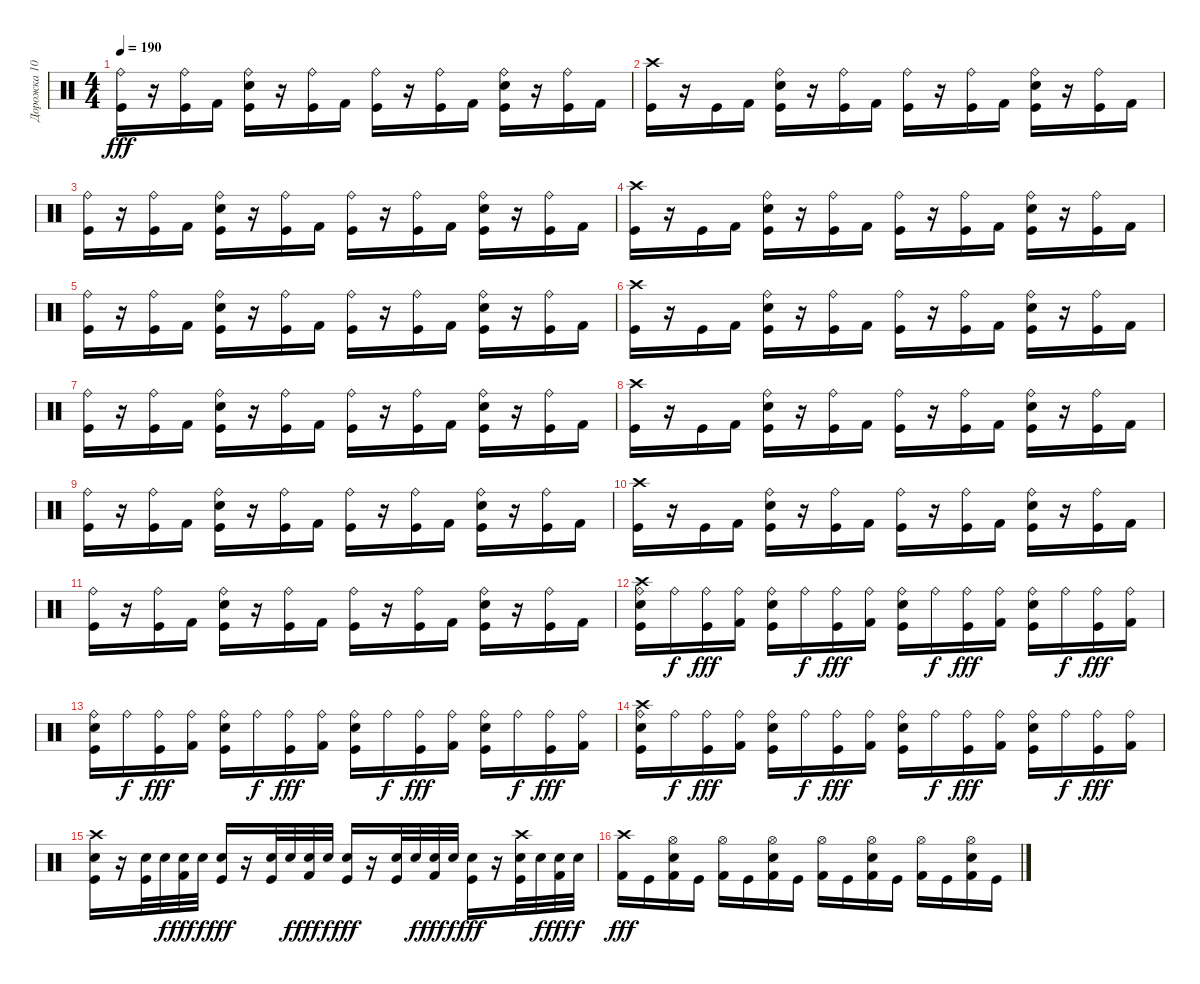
\track ("Дорожка 10" "Дорожка 10") {instrument percussion}
\staff {score}
\articulation defaults
\ts (4 4)
\tempo 190
\clef neutral
\ks c
("Kick (hit)" "Ride (bell)").16{dy fff} r.16 ("Kick (hit)" "Ride (bell)").16 "Kick (hit) 2".16 ("Ride (bell)" "Electric Snare (hit)" "Kick (hit)").16 r.16 ("Ride (bell)" "Kick (hit)").16 "Kick (hit) 2".16 ("Kick (hit)" "Ride (bell)").16 r.16 ("Kick (hit)" "Ride (bell)").16 "Kick (hit) 2".16 ("Kick (hit)" "Electric Snare (hit)" "Ride (bell)").16 r.16 ("Kick (hit)" "Ride (bell)").16 "Kick (hit) 2".16 |
("Kick (hit)" "Crash high (hit)").16 r.16 "Kick (hit)".16 "Kick (hit) 2".16 ("Electric Snare (hit)" "Ride (bell)" "Kick (hit)").16 r.16 ("Kick (hit)" "Ride (bell)").16 "Kick (hit) 2".16 ("Ride (bell)" "Kick (hit)").16 r.16 ("Ride (bell)" "Kick (hit)").16 "Kick (hit) 2".16 ("Electric Snare (hit)" "Kick (hit)" "Ride (bell)").16 r.16 ("Kick (hit)" "Ride (bell)").16 "Kick (hit) 2".16 |
("Ride (bell)" "Kick (hit)").16 r.16 ("Kick (hit)" "Ride (bell)").16 "Kick (hit) 2".16 ("Electric Snare (hit)" "Kick (hit)" "Ride (bell)").16 r.16 ("Kick (hit)" "Ride (bell)").16 "Kick (hit) 2".16 ("Kick (hit)" "Ride (bell)").16 r.16 ("Kick (hit)" "Ride (bell)").16 "Kick (hit) 2".16 ("Electric Snare (hit)" "Ride (bell)" "Kick (hit)").16 r.16 ("Kick (hit)" "Ride (bell)").16 "Kick (hit) 2".16 |
("Kick (hit)" "Crash high (hit)").16 r.16 "Kick (hit)".16 "Kick (hit) 2".16 ("Electric Snare (hit)" "Kick (hit)" "Ride (bell)").16 r.16 ("Ride (bell)" "Kick (hit)").16 "Kick (hit) 2".16 ("Kick (hit)" "Ride (bell)").16 r.16 ("Ride (bell)" "Kick (hit)").16 "Kick (hit) 2".16 ("Ride (bell)" "Electric Snare (hit)" "Kick (hit)").16 r.16 ("Kick (hit)" "Ride (bell)").16 "Kick (hit) 2".16 |
("Kick (hit)" "Ride (bell)").16 r.16 ("Ride (bell)" "Kick (hit)").16 "Kick (hit) 2".16 ("Ride (bell)" "Kick (hit)" "Electric Snare (hit)").16 r.16 ("Kick (hit)" "Ride (bell)").16 "Kick (hit) 2".16 ("Ride (bell)" "Kick (hit)").16 r.16 ("Kick (hit)" "Ride (bell)").16 "Kick (hit) 2".16 ("Electric Snare (hit)" "Ride (bell)" "Kick (hit)").16 r.16 ("Kick (hit)" "Ride (bell)").16 "Kick (hit) 2".16 |
("Crash high (hit)" "Kick (hit)").16 r.16 "Kick (hit)".16 "Kick (hit) 2".16 ("Electric Snare (hit)" "Kick (hit)" "Ride (bell)").16 r.16 ("Kick (hit)" "Ride (bell)").16 "Kick (hit) 2".16 ("Kick (hit)" "Ride (bell)").16 r.16 ("Ride (bell)" "Kick (hit)").16 "Kick (hit) 2".16 ("Ride (bell)" "Kick (hit)" "Electric Snare (hit)").16 r.16 ("Kick (hit)" "Ride (bell)").16 "Kick (hit) 2".16 |
("Ride (bell)" "Kick (hit)").16 r.16 ("Ride (bell)" "Kick (hit)").16 "Kick (hit) 2".16 ("Electric Snare (hit)" "Kick (hit)" "Ride (bell)").16 r.16 ("Kick (hit)" "Ride (bell)").16 "Kick (hit) 2".16 ("Ride (bell)" "Kick (hit)").16 r.16 ("Kick (hit)" "Ride (bell)").16 "Kick (hit) 2".16 ("Electric Snare (hit)" "Kick (hit)" "Ride (bell)").16 r.16 ("Kick (hit)" "Ride (bell)").16 "Kick (hit) 2".16 |
("Kick (hit)" "Crash high (hit)").16 r.16 "Kick (hit)".16 "Kick (hit) 2".16 ("Electric Snare (hit)" "Ride (bell)" "Kick (hit)").16 r.16 ("Kick (hit)" "Ride (bell)").16 "Kick (hit) 2".16 ("Kick (hit)" "Ride (bell)").16 r.16 ("Ride (bell)" "Kick (hit)").16 "Kick (hit) 2".16 ("Ride (bell)" "Electric Snare (hit)" "Kick (hit)").16 r.16 ("Ride (bell)" "Kick (hit)").16 "Kick (hit) 2".16 |
("Kick (hit)" "Ride (bell)").16 r.16 ("Ride (bell)" "Kick (hit)").16 "Kick (hit) 2".16 ("Electric Snare (hit)" "Ride (bell)" "Kick (hit)").16 r.16 ("Kick (hit)" "Ride (bell)").16 "Kick (hit) 2".16 ("Ride (bell)" "Kick (hit)").16 r.16 ("Kick (hit)" "Ride (bell)").16 "Kick (hit) 2".16 ("Ride (bell)" "Kick (hit)" "Electric Snare (hit)").16 r.16 ("Kick (hit)" "Ride (bell)").16 "Kick (hit) 2".16 |
("Kick (hit)" "Crash high (hit)").16 r.16 "Kick (hit)".16 "Kick (hit) 2".16 ("Ride (bell)" "Electric Snare (hit)" "Kick (hit)").16 r.16 ("Ride (bell)" "Kick (hit)").16 "Kick (hit) 2".16 ("Ride (bell)" "Kick (hit)").16 r.16 ("Kick (hit)" "Ride (bell)").16 "Kick (hit) 2".16 ("Ride (bell)" "Kick (hit)" "Electric Snare (hit)").16 r.16 ("Kick (hit)" "Ride (bell)").16 "Kick (hit) 2".16 |
("Ride (bell)" "Kick (hit)").16 r.16 ("Kick (hit)" "Ride (bell)").16 "Kick (hit) 2".16 ("Kick (hit)" "Ride (bell)" "Electric Snare (hit)").16 r.16 ("Ride (bell)" "Kick (hit)").16 "Kick (hit) 2".16 ("Ride (bell)" "Kick (hit)").16 r.16 ("Ride (bell)" "Kick (hit)").16 "Kick (hit) 2".16 ("Ride (bell)" "Kick (hit)" "Electric Snare (hit)").16 r.16 ("Kick (hit)" "Ride (bell)").16 "Kick (hit) 2".16 |
("Electric Snare (hit)" "Crash high (hit)" "Ride (bell)" "Kick (hit)").16 "Ride (bell)".16{dy f} ("Kick (hit)" "Ride (bell)").16{dy fff} ("Ride (bell)" "Kick (hit) 2").16 ("Ride (bell)" "Electric Snare (hit)" "Kick (hit)").16 "Ride (bell)".16{dy f} ("Kick (hit)" "Ride (bell)").16{dy fff} ("Kick (hit) 2" "Ride (bell)").16 ("Kick (hit)" "Ride (bell)" "Electric Snare (hit)").16 "Ride (bell)".16{dy f} ("Ride (bell)" "Kick (hit)").16{dy fff} ("Kick (hit) 2" "Ride (bell)").16 ("Kick (hit)" "Ride (bell)" "Electric Snare (hit)").16 "Ride (bell)".16{dy f} ("Ride (bell)" "Kick (hit)").16{dy fff} ("Ride (bell)" "Kick (hit) 2").16 |
("Ride (bell)" "Kick (hit)" "Electric Snare (hit)").16 "Ride (bell)".16{dy f} ("Kick (hit)" "Ride (bell)").16{dy fff} ("Kick (hit) 2" "Ride (bell)").16 ("Electric Snare (hit)" "Ride (bell)" "Kick (hit)").16 "Ride (bell)".16{dy f} ("Kick (hit)" "Ride (bell)").16{dy fff} ("Kick (hit) 2" "Ride (bell)").16 ("Ride (bell)" "Electric Snare (hit)" "Kick (hit)").16 "Ride (bell)".16{dy f} ("Kick (hit)" "Ride (bell)").16{dy fff} ("Kick (hit) 2" "Ride (bell)").16 ("Ride (bell)" "Electric Snare (hit)" "Kick (hit)").16 "Ride (bell)".16{dy f} ("Kick (hit)" "Ride (bell)").16{dy fff} ("Ride (bell)" "Kick (hit) 2").16 |
("Ride (bell)" "Crash high (hit)" "Electric Snare (hit)" "Kick (hit)").16 "Ride (bell)".16{dy f} ("Kick (hit)" "Ride (bell)").16{dy fff} ("Kick (hit) 2" "Ride (bell)").16 ("Kick (hit)" "Electric Snare (hit)" "Ride (bell)").16 "Ride (bell)".16{dy f} ("Ride (bell)" "Kick (hit)").16{dy fff} ("Ride (bell)" "Kick (hit) 2").16 ("Electric Snare (hit)" "Kick (hit)" "Ride (bell)").16 "Ride (bell)".16{dy f} ("Ride (bell)" "Kick (hit)").16{dy fff} ("Ride (bell)" "Kick (hit) 2").16 ("Ride (bell)" "Electric Snare (hit)" "Kick (hit)").16 "Ride (bell)".16{dy f} ("Ride (bell)" "Kick (hit)").16{dy fff} ("Kick (hit) 2" "Ride (bell)").16 |
("Kick (hit)" "Electric Snare (hit)" "Crash high (hit)").16 r.16 ("Electric Snare (hit)" "Kick (hit)").32 "Electric Snare (hit)".32{dy f} ("Kick (hit) 2" "Electric Snare (hit)").32{dy fff} "Electric Snare (hit)".32{dy f} ("Electric Snare (hit)" "Kick (hit)").16{dy fff} r.16 ("Kick (hit)" "Electric Snare (hit)").32 "Electric Snare (hit)".32{dy f} ("Kick (hit) 2" "Electric Snare (hit)").32{dy fff} "Electric Snare (hit)".32{dy f} ("Kick (hit)" "Electric Snare (hit)").16{dy fff} r.16 ("Kick (hit)" "Electric Snare (hit)").32 "Electric Snare (hit)".32{dy f} ("Electric Snare (hit)" "Kick (hit) 2").32{dy fff} "Electric Snare (hit)".32{dy f} ("Kick (hit)" "Electric Snare (hit)").16{dy fff} r.16 ("Kick (hit)" "Electric Snare (hit)" "Crash high (hit)").32 "Electric Snare (hit)".32{dy f} ("Kick (hit) 2" "Electric Snare (hit)").32{dy fff} "Electric Snare (hit)".32{dy f} |
("Crash high (hit)" "Kick (hit) 2").16{dy fff} "Kick (hit)".16 ("Hi-Hat (open)" "Kick (hit) 2" "Electric Snare (hit)").16 "Kick (hit)".16 ("Hi-Hat (open)" "Kick (hit) 2").16 "Kick (hit)".16 ("Hi-Hat (open)" "Kick (hit) 2" "Electric Snare (hit)").16 "Kick (hit)".16 ("Kick (hit) 2" "Hi-Hat (open)").16 "Kick (hit)".16 ("Electric Snare (hit)" "Hi-Hat (open)" "Kick (hit) 2").16 "Kick (hit)".16 ("Hi-Hat (open)" "Kick (hit) 2").16 "Kick (hit)".16 ("Kick (hit) 2" "Hi-Hat (open)" "Electric Snare (hit)").16 "Kick (hit)".16
